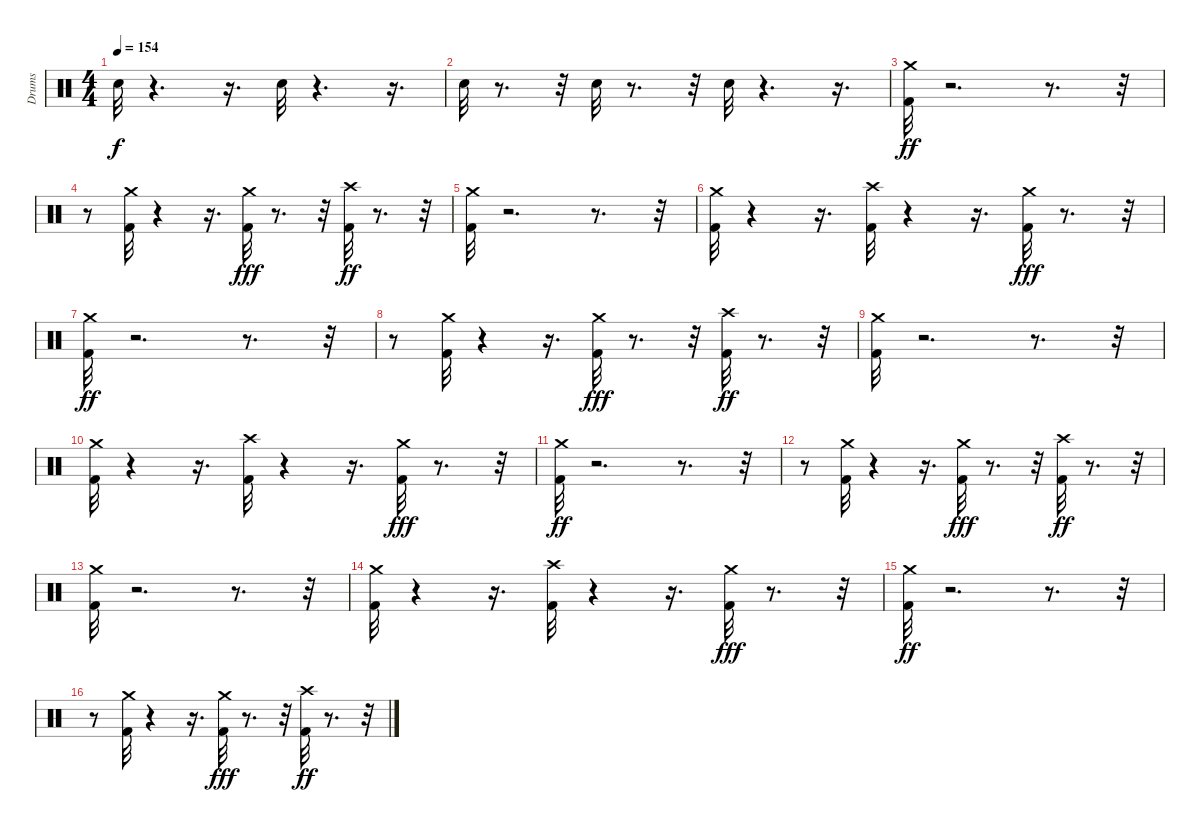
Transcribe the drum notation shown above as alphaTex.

\track ("Drums" "Drums") {instrument percussion}
\staff {score}
\articulation defaults
\ts (4 4)
\tempo 154
\clef neutral
\ks c "Hand Clap (hit)".32{dy f}
r.4{d} r.16{d} "Hand Clap (hit)".32 r.4{d} r.16{d} |
"Hand Clap (hit)".32 r.8{d} r.32 "Hand Clap (hit)".32 r.8{d} r.32 "Hand Clap (hit)".32 r.4{d} r.16{d} |
("Crash medium (hit)" "Kick (hit) 2").32{dy ff} r.2{d} r.8{d} r.32 |
r.8 ("Crash medium (hit)" "Kick (hit) 2").32 r.4 r.16{d} ("Kick (hit) 2" "Crash medium (hit)").32{dy fff} r.8{d} r.32 ("Crash high (hit)" "Kick (hit) 2").32{dy ff} r.8{d} r.32 |
("Crash medium (hit)" "Kick (hit) 2").32 r.2{d} r.8{d} r.32 |
("Crash medium (hit)" "Kick (hit) 2").32 r.4 r.16{d} ("Crash high (hit)" "Kick (hit) 2").32 r.4 r.16{d} ("Kick (hit) 2" "Crash medium (hit)").32{dy fff} r.8{d} r.32 |
("Crash medium (hit)" "Kick (hit) 2").32{dy ff} r.2{d} r.8{d} r.32 |
r.8 ("Crash medium (hit)" "Kick (hit) 2").32 r.4 r.16{d} ("Kick (hit) 2" "Crash medium (hit)").32{dy fff} r.8{d} r.32 ("Crash high (hit)" "Kick (hit) 2").32{dy ff} r.8{d} r.32 |
("Crash medium (hit)" "Kick (hit) 2").32 r.2{d} r.8{d} r.32 |
("Crash medium (hit)" "Kick (hit) 2").32 r.4 r.16{d} ("Crash high (hit)" "Kick (hit) 2").32 r.4 r.16{d} ("Kick (hit) 2" "Crash medium (hit)").32{dy fff} r.8{d} r.32 |
("Crash medium (hit)" "Kick (hit) 2").32{dy ff} r.2{d} r.8{d} r.32 |
r.8 ("Crash medium (hit)" "Kick (hit) 2").32 r.4 r.16{d} ("Kick (hit) 2" "Crash medium (hit)").32{dy fff} r.8{d} r.32 ("Crash high (hit)" "Kick (hit) 2").32{dy ff} r.8{d} r.32 |
("Crash medium (hit)" "Kick (hit) 2").32 r.2{d} r.8{d} r.32 |
("Crash medium (hit)" "Kick (hit) 2").32 r.4 r.16{d} ("Crash high (hit)" "Kick (hit) 2").32 r.4 r.16{d} ("Kick (hit) 2" "Crash medium (hit)").32{dy fff} r.8{d} r.32 |
("Crash medium (hit)" "Kick (hit) 2").32{dy ff} r.2{d} r.8{d} r.32 |
r.8 ("Crash medium (hit)" "Kick (hit) 2").32 r.4 r.16{d} ("Kick (hit) 2" "Crash medium (hit)").32{dy fff} r.8{d} r.32 ("Crash high (hit)" "Kick (hit) 2").32{dy ff} r.8{d} r.32
